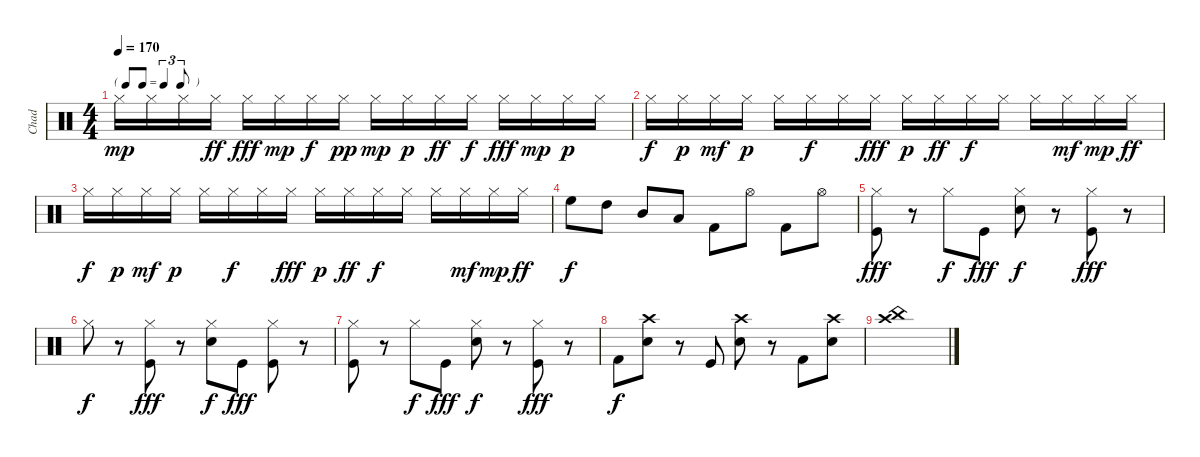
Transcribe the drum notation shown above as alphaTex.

\track ("Chad" "Chad") {instrument percussion}
\staff {score}
\articulation defaults
\ts (4 4)
\tf triplet8th
\tempo 170
\clef neutral
\ks c "Hi-Hat (closed)".16{dy mp} "Hi-Hat (closed)".16 "Hi-Hat (closed)".16 "Hi-Hat (closed)".16{dy ff} "Hi-Hat (closed)".16{dy fff} "Hi-Hat (closed)".16{dy mp} "Hi-Hat (closed)".16{dy f} "Hi-Hat (closed)".16{dy pp} "Hi-Hat (closed)".16{dy mp} "Hi-Hat (closed)".16{dy p} "Hi-Hat (closed)".16{dy ff} "Hi-Hat (closed)".16{dy f} "Hi-Hat (closed)".16{dy fff} "Hi-Hat (closed)".16{dy mp} "Hi-Hat (closed)".16{dy p} "Hi-Hat (closed)".16
|
"Hi-Hat (closed)".16{dy f} "Hi-Hat (closed)".16{dy p} "Hi-Hat (closed)".16{dy mf} "Hi-Hat (closed)".16{dy p} "Hi-Hat (closed)".16 "Hi-Hat (closed)".16{dy f} "Hi-Hat (closed)".16 "Hi-Hat (closed)".16{dy fff} "Hi-Hat (closed)".16{dy p} "Hi-Hat (closed)".16{dy ff} "Hi-Hat (closed)".16{dy f} "Hi-Hat (closed)".16 "Hi-Hat (closed)".16 "Hi-Hat (closed)".16{dy mf} "Hi-Hat (closed)".16{dy mp} "Hi-Hat (closed)".16{dy ff} |
"Hi-Hat (closed)".16{dy f} "Hi-Hat (closed)".16{dy p} "Hi-Hat (closed)".16{dy mf} "Hi-Hat (closed)".16{dy p} "Hi-Hat (closed)".16 "Hi-Hat (closed)".16{dy f} "Hi-Hat (closed)".16 "Hi-Hat (closed)".16{dy fff} "Hi-Hat (closed)".16{dy p} "Hi-Hat (closed)".16{dy ff} "Hi-Hat (closed)".16{dy f} "Hi-Hat (closed)".16 "Hi-Hat (closed)".16 "Hi-Hat (closed)".16{dy mf} "Hi-Hat (closed)".16{dy mp} "Hi-Hat (closed)".16{dy ff} |
"High Floor Tom (hit)".8{dy f} "High Tom (hit)".8 "Mid Tom (hit)".8 "Low Tom (hit)".8 "Kick (hit) 2".8 "Hi-Hat (open)".8 "Kick (hit) 2".8 "Hi-Hat (open)".8 |
("Hi-Hat (closed)" "Kick (hit)").8{dy fff} r.8 "Hi-Hat (closed)".8{dy f} "Kick (hit)".8{dy fff} ("Hi-Hat (closed)" "Snare (hit) 2").8{dy f} r.8 ("Hi-Hat (closed)" "Kick (hit)").8{dy fff} r.8 |
"Hi-Hat (closed)".8{dy f} r.8 ("Hi-Hat (closed)" "Kick (hit)").8{dy fff} r.8 ("Hi-Hat (closed)" "Snare (hit) 2").8{dy f} "Kick (hit)".8{dy fff} ("Hi-Hat (closed)" "Kick (hit)").8 r.8 |
("Hi-Hat (closed)" "Kick (hit)").8 r.8 "Hi-Hat (closed)".8{dy f} "Kick (hit)".8{dy fff} ("Hi-Hat (closed)" "Snare (hit) 2").8{dy f} r.8 ("Hi-Hat (closed)" "Kick (hit)").8{dy fff} r.8 |
"Kick (hit) 2".8{dy f} ("Crash high (hit)" "Snare (hit) 2").8 r.8 "Kick (hit)".8 ("Crash high (hit)" "Snare (hit) 2").8 r.8 "Kick (hit) 2".8 ("Crash high (hit)" "Snare (hit) 2").8 |
("Crash high (hit)" "China (hit)").1
